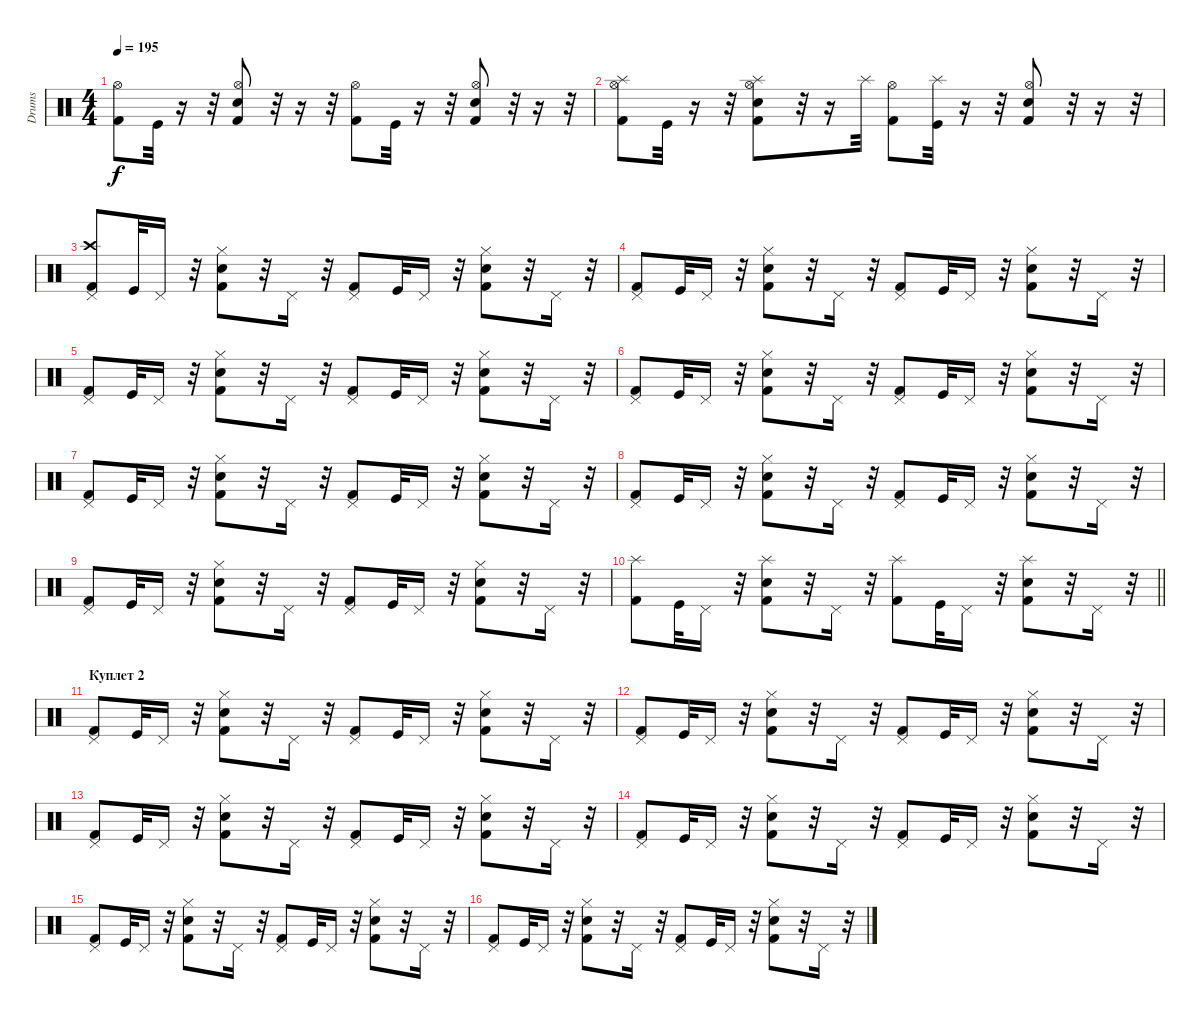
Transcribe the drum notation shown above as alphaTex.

\track ("Drums" "Drums") {instrument percussion}
\staff {score}
\articulation defaults
\ts (4 4)
\tempo 195
\clef neutral
\ks c
("Kick (hit) 2" "Hi-Hat (open)").8{dy f} "Kick (hit)".32 r.16 r.32 ("Snare (hit) 2" "Kick (hit) 2" "Hi-Hat (open)").8 r.32 r.16 r.32 ("Kick (hit) 2" "Hi-Hat (open)").8 "Kick (hit)".32 r.16 r.32 ("Snare (hit) 2" "Kick (hit) 2" "Hi-Hat (open)").8 r.32 r.16 r.32 |
("Splash (hit)" "Kick (hit) 2" "Hi-Hat (open)").8 "Kick (hit)".32 r.16 r.32 ("Splash (hit)" "Snare (hit) 2" "Kick (hit) 2" "Hi-Hat (open)").8 r.32 r.16 "Splash (hit)".32 ("Kick (hit) 2" "Hi-Hat (open)").8 ("Splash (hit)" "Kick (hit)").32 r.16 r.32 ("Snare (hit) 2" "Kick (hit) 2" "Hi-Hat (open)").8 r.32 r.16 r.32 |
("Crash high (hit)" "Kick (hit) 2" "Pedal Hi-Hat (hit)").8 "Kick (hit)".32 "Pedal Hi-Hat (hit)".16 r.32 ("Snare (hit) 2" "Kick (hit) 2" "Hi-Hat (closed)").8 r.32 "Pedal Hi-Hat (hit)".16 r.32 ("Kick (hit) 2" "Pedal Hi-Hat (hit)").8 "Kick (hit)".32 "Pedal Hi-Hat (hit)".16 r.32 ("Snare (hit) 2" "Kick (hit) 2" "Hi-Hat (closed)").8 r.32 "Pedal Hi-Hat (hit)".16 r.32 |
("Kick (hit) 2" "Pedal Hi-Hat (hit)").8 "Kick (hit)".32 "Pedal Hi-Hat (hit)".16 r.32 ("Snare (hit) 2" "Kick (hit) 2" "Hi-Hat (closed)").8 r.32 "Pedal Hi-Hat (hit)".16 r.32 ("Kick (hit) 2" "Pedal Hi-Hat (hit)").8 "Kick (hit)".32 "Pedal Hi-Hat (hit)".16 r.32 ("Snare (hit) 2" "Kick (hit) 2" "Hi-Hat (closed)").8 r.32 "Pedal Hi-Hat (hit)".16 r.32 |
("Kick (hit) 2" "Pedal Hi-Hat (hit)").8 "Kick (hit)".32 "Pedal Hi-Hat (hit)".16 r.32 ("Snare (hit) 2" "Kick (hit) 2" "Hi-Hat (closed)").8 r.32 "Pedal Hi-Hat (hit)".16 r.32 ("Kick (hit) 2" "Pedal Hi-Hat (hit)").8 "Kick (hit)".32 "Pedal Hi-Hat (hit)".16 r.32 ("Snare (hit) 2" "Kick (hit) 2" "Hi-Hat (closed)").8 r.32 "Pedal Hi-Hat (hit)".16 r.32 |
("Kick (hit) 2" "Pedal Hi-Hat (hit)").8 "Kick (hit)".32 "Pedal Hi-Hat (hit)".16 r.32 ("Snare (hit) 2" "Kick (hit) 2" "Hi-Hat (closed)").8 r.32 "Pedal Hi-Hat (hit)".16 r.32 ("Kick (hit) 2" "Pedal Hi-Hat (hit)").8 "Kick (hit)".32 "Pedal Hi-Hat (hit)".16 r.32 ("Snare (hit) 2" "Kick (hit) 2" "Hi-Hat (closed)").8 r.32 "Pedal Hi-Hat (hit)".16 r.32 |
("Kick (hit) 2" "Pedal Hi-Hat (hit)").8 "Kick (hit)".32 "Pedal Hi-Hat (hit)".16 r.32 ("Snare (hit) 2" "Kick (hit) 2" "Hi-Hat (closed)").8 r.32 "Pedal Hi-Hat (hit)".16 r.32 ("Kick (hit) 2" "Pedal Hi-Hat (hit)").8 "Kick (hit)".32 "Pedal Hi-Hat (hit)".16 r.32 ("Snare (hit) 2" "Kick (hit) 2" "Hi-Hat (closed)").8 r.32 "Pedal Hi-Hat (hit)".16 r.32 |
("Kick (hit) 2" "Pedal Hi-Hat (hit)").8 "Kick (hit)".32 "Pedal Hi-Hat (hit)".16 r.32 ("Snare (hit) 2" "Kick (hit) 2" "Hi-Hat (closed)").8 r.32 "Pedal Hi-Hat (hit)".16 r.32 ("Kick (hit) 2" "Pedal Hi-Hat (hit)").8 "Kick (hit)".32 "Pedal Hi-Hat (hit)".16 r.32 ("Snare (hit) 2" "Kick (hit) 2" "Hi-Hat (closed)").8 r.32 "Pedal Hi-Hat (hit)".16 r.32 |
("Kick (hit) 2" "Pedal Hi-Hat (hit)").8 "Kick (hit)".32 "Pedal Hi-Hat (hit)".16 r.32 ("Snare (hit) 2" "Kick (hit) 2" "Hi-Hat (closed)").8 r.32 "Pedal Hi-Hat (hit)".16 r.32 ("Kick (hit) 2" "Pedal Hi-Hat (hit)").8 "Kick (hit)".32 "Pedal Hi-Hat (hit)".16 r.32 ("Snare (hit) 2" "Kick (hit) 2" "Hi-Hat (closed)").8 r.32 "Pedal Hi-Hat (hit)".16 r.32 |
\barLineRight lightlight
("Kick (hit) 2" "Splash (hit)").8 "Kick (hit)".32 "Pedal Hi-Hat (hit)".16 r.32 ("Snare (hit) 2" "Kick (hit) 2" "Splash (hit)").8 r.32 "Pedal Hi-Hat (hit)".16 r.32 ("Kick (hit) 2" "Splash (hit)").8 "Kick (hit)".32 "Pedal Hi-Hat (hit)".16 r.32 ("Snare (hit) 2" "Kick (hit) 2" "Splash (hit)").8 r.32 "Pedal Hi-Hat (hit)".16 r.32 |
\section ("" "Куплет 2")
("Kick (hit) 2" "Pedal Hi-Hat (hit)").8 "Kick (hit)".32 "Pedal Hi-Hat (hit)".16 r.32 ("Snare (hit) 2" "Kick (hit) 2" "Hi-Hat (closed)").8 r.32 "Pedal Hi-Hat (hit)".16 r.32 ("Kick (hit) 2" "Pedal Hi-Hat (hit)").8 "Kick (hit)".32 "Pedal Hi-Hat (hit)".16 r.32 ("Snare (hit) 2" "Kick (hit) 2" "Hi-Hat (closed)").8 r.32 "Pedal Hi-Hat (hit)".16 r.32 |
("Kick (hit) 2" "Pedal Hi-Hat (hit)").8 "Kick (hit)".32 "Pedal Hi-Hat (hit)".16 r.32 ("Snare (hit) 2" "Kick (hit) 2" "Hi-Hat (closed)").8 r.32 "Pedal Hi-Hat (hit)".16 r.32 ("Kick (hit) 2" "Pedal Hi-Hat (hit)").8 "Kick (hit)".32 "Pedal Hi-Hat (hit)".16 r.32 ("Snare (hit) 2" "Kick (hit) 2" "Hi-Hat (closed)").8 r.32 "Pedal Hi-Hat (hit)".16 r.32 |
("Kick (hit) 2" "Pedal Hi-Hat (hit)").8 "Kick (hit)".32 "Pedal Hi-Hat (hit)".16 r.32 ("Snare (hit) 2" "Kick (hit) 2" "Hi-Hat (closed)").8 r.32 "Pedal Hi-Hat (hit)".16 r.32 ("Kick (hit) 2" "Pedal Hi-Hat (hit)").8 "Kick (hit)".32 "Pedal Hi-Hat (hit)".16 r.32 ("Snare (hit) 2" "Kick (hit) 2" "Hi-Hat (closed)").8 r.32 "Pedal Hi-Hat (hit)".16 r.32 |
("Kick (hit) 2" "Pedal Hi-Hat (hit)").8 "Kick (hit)".32 "Pedal Hi-Hat (hit)".16 r.32 ("Snare (hit) 2" "Kick (hit) 2" "Hi-Hat (closed)").8 r.32 "Pedal Hi-Hat (hit)".16 r.32 ("Kick (hit) 2" "Pedal Hi-Hat (hit)").8 "Kick (hit)".32 "Pedal Hi-Hat (hit)".16 r.32 ("Snare (hit) 2" "Kick (hit) 2" "Hi-Hat (closed)").8 r.32 "Pedal Hi-Hat (hit)".16 r.32 |
("Kick (hit) 2" "Pedal Hi-Hat (hit)").8 "Kick (hit)".32 "Pedal Hi-Hat (hit)".16 r.32 ("Snare (hit) 2" "Kick (hit) 2" "Hi-Hat (closed)").8 r.32 "Pedal Hi-Hat (hit)".16 r.32 ("Kick (hit) 2" "Pedal Hi-Hat (hit)").8 "Kick (hit)".32 "Pedal Hi-Hat (hit)".16 r.32 ("Snare (hit) 2" "Kick (hit) 2" "Hi-Hat (closed)").8 r.32 "Pedal Hi-Hat (hit)".16 r.32 |
("Kick (hit) 2" "Pedal Hi-Hat (hit)").8 "Kick (hit)".32 "Pedal Hi-Hat (hit)".16 r.32 ("Snare (hit) 2" "Kick (hit) 2" "Hi-Hat (closed)").8 r.32 "Pedal Hi-Hat (hit)".16 r.32 ("Kick (hit) 2" "Pedal Hi-Hat (hit)").8 "Kick (hit)".32 "Pedal Hi-Hat (hit)".16 r.32 ("Snare (hit) 2" "Kick (hit) 2" "Hi-Hat (closed)").8 r.32 "Pedal Hi-Hat (hit)".16 r.32
